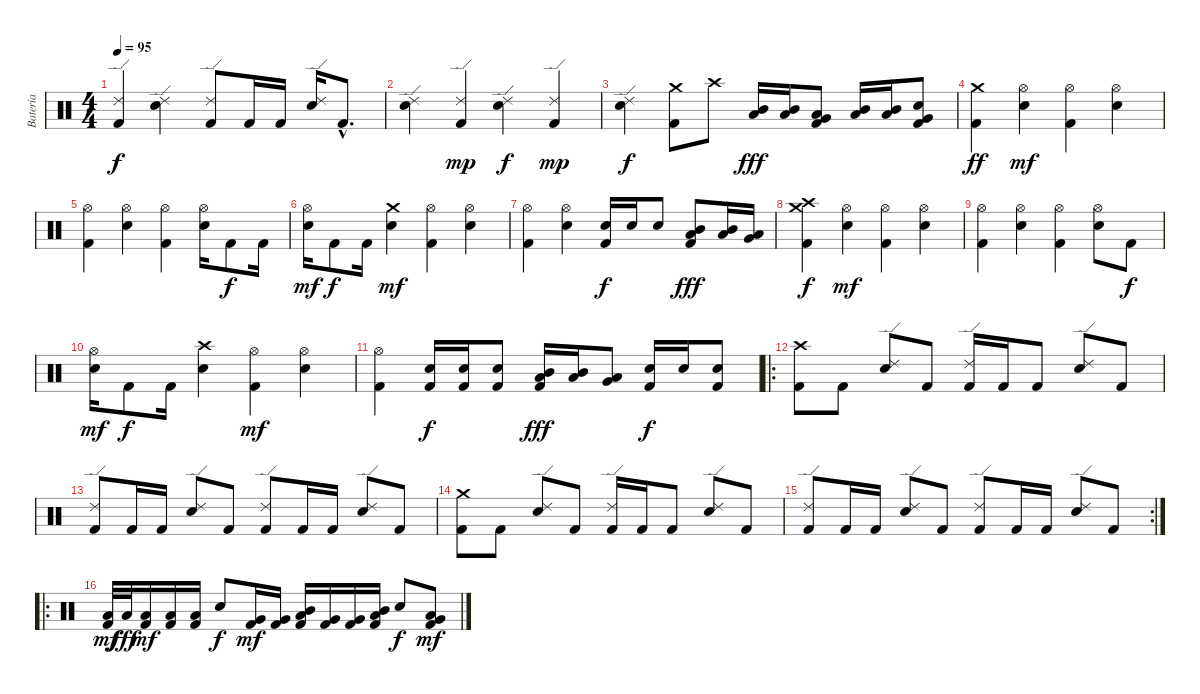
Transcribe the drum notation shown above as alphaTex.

\track ("Bateria" "Bateria") {instrument percussion}
\staff {score}
\articulation defaults
\ts (4 4)
\tempo 95
\clef neutral
\ks c
("Ride (edge) 2" "Kick (hit) 2").4{dy f} ("Ride (edge) 2" "Snare (hit) 2").4 ("Ride (edge) 2" "Kick (hit) 2").8 "Kick (hit) 2".16 "Kick (hit) 2".16 ("Ride (edge) 2" "Snare (hit) 2").16 "Kick (hit) 2"{hac}.8{d} |
("Ride (edge) 2" "Snare (hit) 2").4 ("Ride (edge) 2" "Kick (hit) 2").4{dy mp} ("Ride (edge) 2" "Snare (hit) 2").4{dy f} ("Ride (edge) 2" "Kick (hit) 2").4{dy mp} |
("Ride (edge) 2" "Snare (hit) 2").4{dy f} ("Crash medium (hit)" "Kick (hit) 2").8 "Crash high (hit)".8 ("Mid Tom (hit)" "Low Tom (hit)").16{dy fff} ("Mid Tom (hit)" "Low Tom (hit)").16 ("Low Tom (hit)" "Very Low Tom (hit)" "Kick (hit) 2").8 ("Mid Tom (hit)" "Low Tom (hit)").16 ("Mid Tom (hit)" "Low Tom (hit)").16 ("Snare (hit) 2" "Very Low Tom (hit)" "Kick (hit) 2").8 |
("Crash medium (hit)" "Kick (hit) 2").4{dy ff} ("Hi-Hat (open)" "Snare (hit) 2").4{dy mf} ("Hi-Hat (open)" "Kick (hit) 2").4 ("Hi-Hat (open)" "Snare (hit) 2").4 |
("Hi-Hat (open)" "Kick (hit) 2").4 ("Hi-Hat (open)" "Snare (hit) 2").4 ("Hi-Hat (open)" "Kick (hit) 2").4 ("Hi-Hat (open)" "Snare (hit) 2").16 "Kick (hit) 2".8{dy f} "Kick (hit) 2".16 |
("Hi-Hat (open)" "Snare (hit) 2").16{dy mf} "Kick (hit) 2".8{dy f} "Kick (hit) 2".16 ("Crash medium (hit)" "Snare (hit) 2").4{dy mf} ("Hi-Hat (open)" "Kick (hit) 2").4 ("Hi-Hat (open)" "Snare (hit) 2").4 |
("Hi-Hat (open)" "Kick (hit) 2").4 ("Hi-Hat (open)" "Snare (hit) 2").4 ("Snare (hit) 2" "Kick (hit) 2").16{dy f} "Snare (hit) 2".16 "Snare (hit) 2".8 ("Mid Tom (hit)" "Low Tom (hit)" "Kick (hit) 2").8{dy fff} ("Mid Tom (hit)" "Low Tom (hit)").16 ("Low Tom (hit)" "Very Low Tom (hit)").16 |
("Crash high (hit)" "Crash medium (hit)" "Kick (hit) 2").4{dy f} ("Hi-Hat (open)" "Snare (hit) 2").4{dy mf} ("Hi-Hat (open)" "Kick (hit) 2").4 ("Hi-Hat (open)" "Snare (hit) 2").4 |
("Hi-Hat (open)" "Kick (hit) 2").4 ("Hi-Hat (open)" "Snare (hit) 2").4 ("Hi-Hat (open)" "Kick (hit) 2").4 ("Hi-Hat (open)" "Snare (hit) 2").8 "Kick (hit) 2".8{dy f} |
("Hi-Hat (open)" "Snare (hit) 2").16{dy mf} "Kick (hit) 2".8{dy f} "Kick (hit) 2".16 ("Crash high (hit)" "Snare (hit) 2").4 ("Hi-Hat (open)" "Kick (hit) 2").4{dy mf} ("Hi-Hat (open)" "Snare (hit) 2").4 |
("Hi-Hat (open)" "Kick (hit) 2").4 ("Snare (hit) 2" "Kick (hit) 2").16{dy f} ("Snare (hit) 2" "Kick (hit) 2").16 ("Snare (hit) 2" "Kick (hit) 2").8 ("Mid Tom (hit)" "Low Tom (hit)" "Kick (hit) 2").16{dy fff} ("Mid Tom (hit)" "Low Tom (hit)").16 ("Low Tom (hit)" "Very Low Tom (hit)").8 ("Snare (hit) 2" "Kick (hit) 2").16{dy f} "Snare (hit) 2".16 ("Snare (hit) 2" "Kick (hit) 2").8 |
\ro
("Crash high (hit)" "Kick (hit) 2").8 "Kick (hit) 2".8 ("Ride (edge) 2" "Snare (hit) 2").8 "Kick (hit) 2".8 ("Ride (edge) 2" "Kick (hit) 2").16 "Kick (hit) 2".16 "Kick (hit) 2".8 ("Ride (edge) 2" "Snare (hit) 2").8 "Kick (hit) 2".8 |
("Ride (edge) 2" "Kick (hit) 2").8 "Kick (hit) 2".16 "Kick (hit) 2".16 ("Ride (edge) 2" "Snare (hit) 2").8 "Kick (hit) 2".8 ("Ride (edge) 2" "Kick (hit) 2").8 "Kick (hit) 2".16 "Kick (hit) 2".16 ("Ride (edge) 2" "Snare (hit) 2").8 "Kick (hit) 2".8 |
("Crash medium (hit)" "Kick (hit) 2").8 "Kick (hit) 2".8 ("Ride (edge) 2" "Snare (hit) 2").8 "Kick (hit) 2".8 ("Ride (edge) 2" "Kick (hit) 2").16 "Kick (hit) 2".16 "Kick (hit) 2".8 ("Ride (edge) 2" "Snare (hit) 2").8 "Kick (hit) 2".8 |
\rc 2
("Ride (edge) 2" "Kick (hit) 2").8 "Kick (hit) 2".16 "Kick (hit) 2".16 ("Ride (edge) 2" "Snare (hit) 2").8 "Kick (hit) 2".8 ("Ride (edge) 2" "Kick (hit) 2").8 "Kick (hit) 2".16 "Kick (hit) 2".16 ("Ride (edge) 2" "Snare (hit) 2").8 "Kick (hit) 2".8 |
\ro
("Low Floor Tom (hit)" "Kick (hit) 2").32{dy mf} "Low Floor Tom (hit)".32{dy fff} ("Low Floor Tom (hit)" "Kick (hit) 2").16{dy mf} ("Low Floor Tom (hit)" "Kick (hit) 2").16 ("Low Floor Tom (hit)" "Kick (hit) 2").16 "Snare (hit) 2".8{dy f} ("Very Low Tom (hit)" "Kick (hit) 2").16{dy mf} ("Very Low Tom (hit)" "Kick (hit) 2").16 ("Mid Tom (hit)" "Low Tom (hit)" "Kick (hit) 2").16 ("Very Low Tom (hit)" "Kick (hit) 2").16 ("Very Low Tom (hit)" "Kick (hit) 2").16 ("Mid Tom (hit)" "Low Tom (hit)" "Kick (hit) 2").16 "Snare (hit) 2".8{dy f} ("Very Low Tom (hit)" "Low Floor Tom (hit)" "Kick (hit) 2").8{dy mf}
